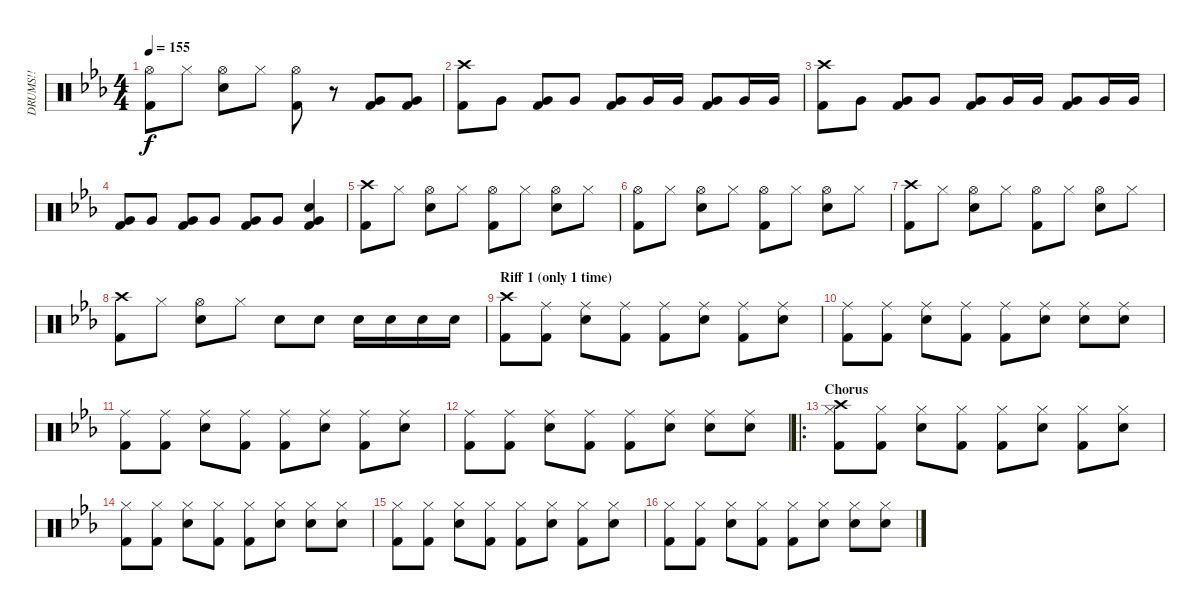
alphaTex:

\track ("DRUMS!!" "DRUMS!!") {instrument percussion}
\staff {score}
\articulation defaults
\ts (4 4)
\tempo 155
\clef neutral
\ks cminor
("Hi-Hat (open)" "Kick (hit) 2").8{dy f} "Hi-Hat (closed)".8 ("Hi-Hat (open)" "Snare (hit) 2").8 "Hi-Hat (closed)".8 ("Hi-Hat (open)" "Kick (hit) 2").8 r.8 ("Very Low Tom (hit)" "Kick (hit) 2").8 ("Very Low Tom (hit)" "Kick (hit) 2").8 |
("Crash high (hit)" "Kick (hit) 2").8 "Very Low Tom (hit)".8 ("Very Low Tom (hit)" "Kick (hit) 2").8 "Very Low Tom (hit)".8 ("Very Low Tom (hit)" "Kick (hit) 2").8 "Very Low Tom (hit)".16 "Very Low Tom (hit)".16 ("Very Low Tom (hit)" "Kick (hit) 2").8 "Very Low Tom (hit)".16 "Very Low Tom (hit)".16 |
("Crash high (hit)" "Kick (hit) 2").8 "Very Low Tom (hit)".8 ("Very Low Tom (hit)" "Kick (hit) 2").8 "Very Low Tom (hit)".8 ("Very Low Tom (hit)" "Kick (hit) 2").8 "Very Low Tom (hit)".16 "Very Low Tom (hit)".16 ("Very Low Tom (hit)" "Kick (hit) 2").8 "Very Low Tom (hit)".16 "Very Low Tom (hit)".16 |
("Very Low Tom (hit)" "Kick (hit) 2").8 "Very Low Tom (hit)".8 ("Very Low Tom (hit)" "Kick (hit) 2").8 "Very Low Tom (hit)".8 ("Very Low Tom (hit)" "Kick (hit) 2").8 "Very Low Tom (hit)".8 ("Snare (hit) 2" "Very Low Tom (hit)" "Kick (hit) 2").4 |
("Crash high (hit)" "Kick (hit) 2").8 "Hi-Hat (closed)".8 ("Hi-Hat (open)" "Snare (hit) 2").8 "Hi-Hat (closed)".8 ("Hi-Hat (open)" "Kick (hit) 2").8 "Hi-Hat (closed)".8 ("Hi-Hat (open)" "Snare (hit) 2").8 "Hi-Hat (closed)".8 |
("Hi-Hat (open)" "Kick (hit) 2").8 "Hi-Hat (closed)".8 ("Hi-Hat (open)" "Snare (hit) 2").8 "Hi-Hat (closed)".8 ("Hi-Hat (open)" "Kick (hit) 2").8 "Hi-Hat (closed)".8 ("Hi-Hat (open)" "Snare (hit) 2").8 "Hi-Hat (closed)".8 |
("Crash high (hit)" "Kick (hit) 2").8 "Hi-Hat (closed)".8 ("Hi-Hat (open)" "Snare (hit) 2").8 "Hi-Hat (closed)".8 ("Hi-Hat (open)" "Kick (hit) 2").8 "Hi-Hat (closed)".8 ("Hi-Hat (open)" "Snare (hit) 2").8 "Hi-Hat (closed)".8 |
("Crash high (hit)" "Kick (hit) 2").8 "Hi-Hat (closed)".8 ("Hi-Hat (open)" "Snare (hit) 2").8 "Hi-Hat (closed)".8 "Snare (hit) 2".8 "Snare (hit) 2".8 "Snare (hit) 2".16 "Snare (hit) 2".16 "Snare (hit) 2".16 "Snare (hit) 2".16 |
\section ("" "Riff 1 (only 1 time)")
("Crash high (hit)" "Kick (hit) 2").8 ("Ride (middle)" "Kick (hit) 2").8 ("Ride (middle)" "Snare (hit) 2").8 ("Ride (middle)" "Kick (hit) 2").8 ("Ride (middle)" "Kick (hit) 2").8 ("Ride (middle)" "Snare (hit) 2").8 ("Ride (middle)" "Kick (hit) 2").8 ("Ride (middle)" "Snare (hit) 2").8 |
("Ride (middle)" "Kick (hit) 2").8 ("Ride (middle)" "Kick (hit) 2").8 ("Ride (middle)" "Snare (hit) 2").8 ("Ride (middle)" "Kick (hit) 2").8 ("Ride (middle)" "Kick (hit) 2").8 ("Ride (middle)" "Snare (hit) 2").8 ("Ride (middle)" "Snare (hit) 2").8 ("Ride (middle)" "Snare (hit) 2").8 |
("Ride (middle)" "Kick (hit) 2").8 ("Ride (middle)" "Kick (hit) 2").8 ("Ride (middle)" "Snare (hit) 2").8 ("Ride (middle)" "Kick (hit) 2").8 ("Ride (middle)" "Kick (hit) 2").8 ("Ride (middle)" "Snare (hit) 2").8 ("Ride (middle)" "Kick (hit) 2").8 ("Ride (middle)" "Snare (hit) 2").8 |
("Ride (middle)" "Kick (hit) 2").8 ("Ride (middle)" "Kick (hit) 2").8 ("Ride (middle)" "Snare (hit) 2").8 ("Ride (middle)" "Kick (hit) 2").8 ("Ride (middle)" "Kick (hit) 2").8 ("Ride (middle)" "Snare (hit) 2").8 ("Ride (middle)" "Snare (hit) 2").8 ("Ride (middle)" "Snare (hit) 2").8 |
\ro
\section ("" "Chorus")
("Crash high (hit)" "Hi-Hat (closed)" "Kick (hit) 2").8 ("Hi-Hat (closed)" "Kick (hit) 2").8 ("Hi-Hat (closed)" "Snare (hit) 2").8 ("Hi-Hat (closed)" "Kick (hit) 2").8 ("Hi-Hat (closed)" "Kick (hit) 2").8 ("Hi-Hat (closed)" "Snare (hit) 2").8 ("Hi-Hat (closed)" "Kick (hit) 2").8 ("Hi-Hat (closed)" "Snare (hit) 2").8 |
("Hi-Hat (closed)" "Kick (hit) 2").8 ("Hi-Hat (closed)" "Kick (hit) 2").8 ("Hi-Hat (closed)" "Snare (hit) 2").8 ("Hi-Hat (closed)" "Kick (hit) 2").8 ("Hi-Hat (closed)" "Kick (hit) 2").8 ("Hi-Hat (closed)" "Snare (hit) 2").8 ("Hi-Hat (closed)" "Snare (hit) 2").8 ("Hi-Hat (closed)" "Snare (hit) 2").8 |
("Hi-Hat (closed)" "Kick (hit) 2").8 ("Hi-Hat (closed)" "Kick (hit) 2").8 ("Hi-Hat (closed)" "Snare (hit) 2").8 ("Hi-Hat (closed)" "Kick (hit) 2").8 ("Hi-Hat (closed)" "Kick (hit) 2").8 ("Hi-Hat (closed)" "Snare (hit) 2").8 ("Hi-Hat (closed)" "Kick (hit) 2").8 ("Hi-Hat (closed)" "Snare (hit) 2").8 |
("Hi-Hat (closed)" "Kick (hit) 2").8 ("Hi-Hat (closed)" "Kick (hit) 2").8 ("Hi-Hat (closed)" "Snare (hit) 2").8 ("Hi-Hat (closed)" "Kick (hit) 2").8 ("Hi-Hat (closed)" "Kick (hit) 2").8 ("Hi-Hat (closed)" "Snare (hit) 2").8 ("Hi-Hat (closed)" "Snare (hit) 2").8 ("Hi-Hat (closed)" "Snare (hit) 2").8
